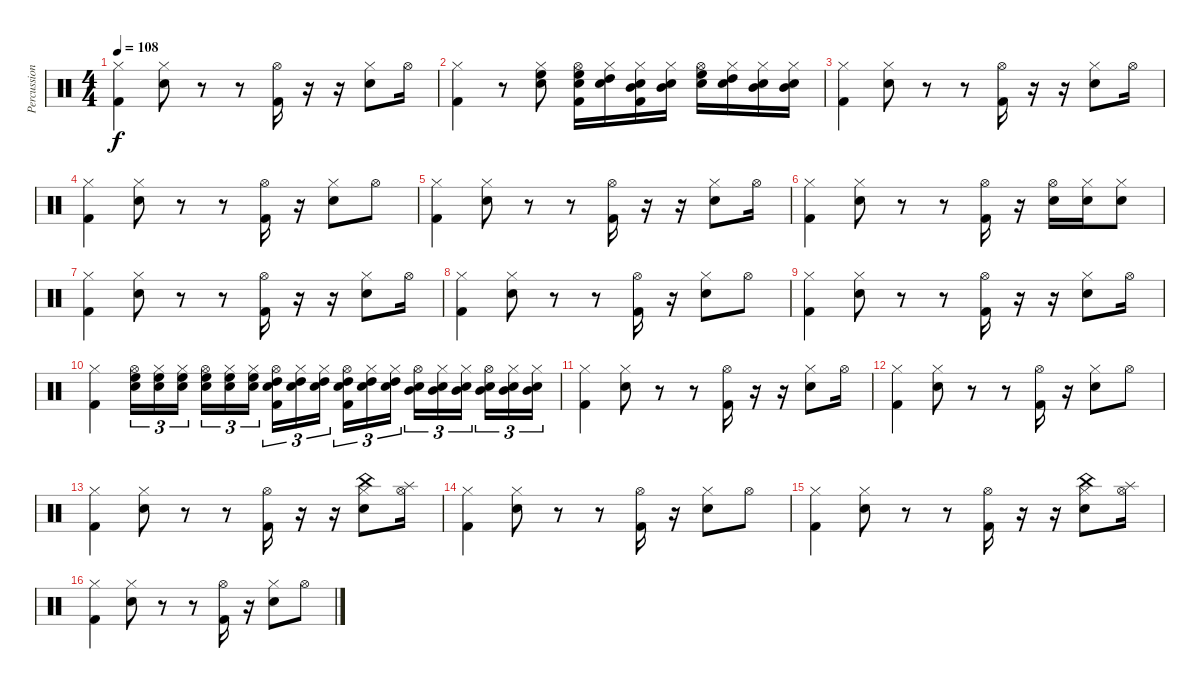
\track ("Percussions" "Percussion") {instrument percussion}
\staff {score}
\articulation defaults
\ts (4 4)
\tempo 108
\clef neutral
\ks c
("Hi-Hat (closed)" "Kick (hit) 2").4{dy f} ("Hi-Hat (closed)" "Snare (hit) 2").8 r.8 r.8 ("Hi-Hat (open)" "Kick (hit) 2").16 r.16 r.16 ("Hi-Hat (closed)" "Snare (hit) 2").8 "Hi-Hat (open)".16 |
("Hi-Hat (closed)" "Kick (hit) 2").4 r.8 ("Hi-Hat (closed)" "High Floor Tom (hit)" "Snare (hit) 2").8 ("Hi-Hat (open)" "High Floor Tom (hit)" "Snare (hit) 2" "Kick (hit) 2").16 ("Hi-Hat (closed)" "High Tom (hit)" "Snare (hit) 2").16 ("Hi-Hat (closed)" "Mid Tom (hit)" "Snare (hit) 2" "Kick (hit) 2").16 ("Hi-Hat (closed)" "Mid Tom (hit)" "Snare (hit) 2").16 ("Hi-Hat (open)" "High Floor Tom (hit)" "Snare (hit) 2").16 ("Hi-Hat (closed)" "High Tom (hit)" "Snare (hit) 2").16 ("Hi-Hat (closed)" "Mid Tom (hit)" "Snare (hit) 2").16 ("Hi-Hat (closed)" "Mid Tom (hit)" "Snare (hit) 2").16 |
("Hi-Hat (closed)" "Kick (hit) 2").4 ("Hi-Hat (closed)" "Snare (hit) 2").8 r.8 r.8 ("Hi-Hat (open)" "Kick (hit) 2").16 r.16 r.16 ("Hi-Hat (closed)" "Snare (hit) 2").8 "Hi-Hat (open)".16 |
("Hi-Hat (closed)" "Kick (hit) 2").4 ("Hi-Hat (closed)" "Snare (hit) 2").8 r.8 r.8 ("Hi-Hat (open)" "Kick (hit) 2").16 r.16 ("Hi-Hat (closed)" "Snare (hit) 2").8 "Hi-Hat (open)".8 |
("Hi-Hat (closed)" "Kick (hit) 2").4 ("Hi-Hat (closed)" "Snare (hit) 2").8 r.8 r.8 ("Hi-Hat (open)" "Kick (hit) 2").16 r.16 r.16 ("Hi-Hat (closed)" "Snare (hit) 2").8 "Hi-Hat (open)".16 |
("Hi-Hat (closed)" "Kick (hit) 2").4 ("Hi-Hat (closed)" "Snare (hit) 2").8 r.8 r.8 ("Hi-Hat (open)" "Kick (hit) 2").16 r.16 ("Hi-Hat (open)" "Snare (hit) 2").16 ("Hi-Hat (closed)" "Snare (hit) 2").16 ("Hi-Hat (closed)" "Snare (hit) 2").8 |
("Hi-Hat (closed)" "Kick (hit) 2").4 ("Hi-Hat (closed)" "Snare (hit) 2").8 r.8 r.8 ("Hi-Hat (open)" "Kick (hit) 2").16 r.16 r.16 ("Hi-Hat (closed)" "Snare (hit) 2").8 "Hi-Hat (open)".16 |
("Hi-Hat (closed)" "Kick (hit) 2").4 ("Hi-Hat (closed)" "Snare (hit) 2").8 r.8 r.8 ("Hi-Hat (open)" "Kick (hit) 2").16 r.16 ("Hi-Hat (closed)" "Snare (hit) 2").8 "Hi-Hat (open)".8 |
("Hi-Hat (closed)" "Kick (hit) 2").4 ("Hi-Hat (closed)" "Snare (hit) 2").8 r.8 r.8 ("Hi-Hat (open)" "Kick (hit) 2").16 r.16 r.16 ("Hi-Hat (closed)" "Snare (hit) 2").8 "Hi-Hat (open)".16 |
("Hi-Hat (closed)" "Kick (hit) 2").4 ("Hi-Hat (open)" "High Floor Tom (hit)" "Snare (hit) 2").16{tu (3 2)} ("Hi-Hat (closed)" "High Floor Tom (hit)" "Snare (hit) 2").16{tu (3 2)} ("Hi-Hat (closed)" "High Floor Tom (hit)" "Snare (hit) 2").16{tu (3 2)} ("Hi-Hat (open)" "High Floor Tom (hit)" "Snare (hit) 2").16{tu (3 2)} ("Hi-Hat (closed)" "High Floor Tom (hit)" "Snare (hit) 2").16{tu (3 2)} ("Hi-Hat (closed)" "High Floor Tom (hit)" "Snare (hit) 2").16{tu (3 2)} ("Hi-Hat (open)" "High Tom (hit)" "Snare (hit) 2" "Kick (hit) 2").16{tu (3 2)} ("Hi-Hat (closed)" "High Tom (hit)" "Snare (hit) 2").16{tu (3 2)} ("Hi-Hat (closed)" "High Tom (hit)" "Snare (hit) 2").16{tu (3 2)} ("Hi-Hat (open)" "High Tom (hit)" "Snare (hit) 2" "Kick (hit) 2").16{tu (3 2)} ("Hi-Hat (closed)" "High Tom (hit)" "Snare (hit) 2").16{tu (3 2)} ("Hi-Hat (closed)" "High Tom (hit)" "Snare (hit) 2").16{tu (3 2)} ("Hi-Hat (open)" "Mid Tom (hit)" "Snare (hit) 2").16{tu (3 2)} ("Hi-Hat (closed)" "Mid Tom (hit)" "Snare (hit) 2").16{tu (3 2)} ("Hi-Hat (closed)" "Mid Tom (hit)" "Snare (hit) 2").16{tu (3 2)} ("Hi-Hat (open)" "Mid Tom (hit)" "Snare (hit) 2").16{tu (3 2)} ("Hi-Hat (closed)" "Mid Tom (hit)" "Snare (hit) 2").16{tu (3 2)} ("Hi-Hat (closed)" "Mid Tom (hit)" "Snare (hit) 2").16{tu (3 2)} |
("Hi-Hat (closed)" "Kick (hit) 2").4 ("Hi-Hat (closed)" "Snare (hit) 2").8 r.8 r.8 ("Hi-Hat (open)" "Kick (hit) 2").16 r.16 r.16 ("Hi-Hat (closed)" "Snare (hit) 2").8 "Hi-Hat (open)".16 |
("Hi-Hat (closed)" "Kick (hit) 2").4 ("Hi-Hat (closed)" "Snare (hit) 2").8 r.8 r.8 ("Hi-Hat (open)" "Kick (hit) 2").16 r.16 ("Hi-Hat (closed)" "Snare (hit) 2").8 "Hi-Hat (open)".8 |
("Hi-Hat (closed)" "Kick (hit) 2").4 ("Hi-Hat (closed)" "Snare (hit) 2").8 r.8 r.8 ("Hi-Hat (open)" "Kick (hit) 2").16 r.16 r.16 ("Hi-Hat (closed)" "China (hit)" "Snare (hit) 2").8 ("Hi-Hat (open)" "Splash (hit)").16 |
("Hi-Hat (closed)" "Kick (hit) 2").4 ("Hi-Hat (closed)" "Snare (hit) 2").8 r.8 r.8 ("Hi-Hat (open)" "Kick (hit) 2").16 r.16 ("Hi-Hat (closed)" "Snare (hit) 2").8 "Hi-Hat (open)".8 |
("Hi-Hat (closed)" "Kick (hit) 2").4 ("Hi-Hat (closed)" "Snare (hit) 2").8 r.8 r.8 ("Hi-Hat (open)" "Kick (hit) 2").16 r.16 r.16 ("Hi-Hat (closed)" "China (hit)" "Snare (hit) 2").8 ("Hi-Hat (open)" "Splash (hit)").16 |
("Hi-Hat (closed)" "Kick (hit) 2").4 ("Hi-Hat (closed)" "Snare (hit) 2").8 r.8 r.8 ("Hi-Hat (open)" "Kick (hit) 2").16 r.16 ("Hi-Hat (closed)" "Snare (hit) 2").8 "Hi-Hat (open)".8
